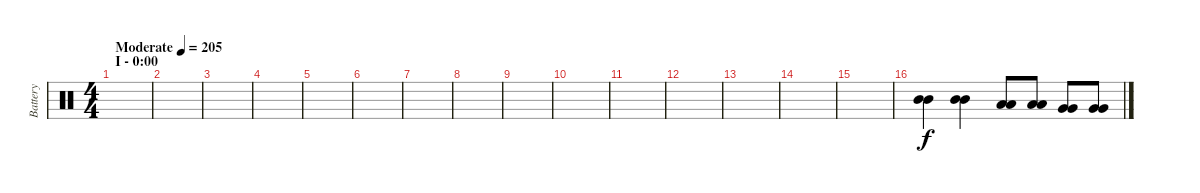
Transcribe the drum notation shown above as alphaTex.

\track ("Battery" "Battery") {instrument percussion}
\staff {score}
\articulation defaults
\ts (4 4)
\section ("" "I - 0:00")
\tempo (205 "Moderate")
\clef neutral
\ks c
|
|
|
|
|
|
|
|
|
|
|
|
|
|
|
("Mid Tom (hit)" "Mid Tom (hit)").4 ("Mid Tom (hit)" "Mid Tom (hit)").4 ("Low Tom (hit)" "Low Tom (hit)").8 ("Low Tom (hit)" "Low Tom (hit)").8 ("Very Low Tom (hit)" "Very Low Tom (hit)").8 ("Very Low Tom (hit)" "Very Low Tom (hit)").8
